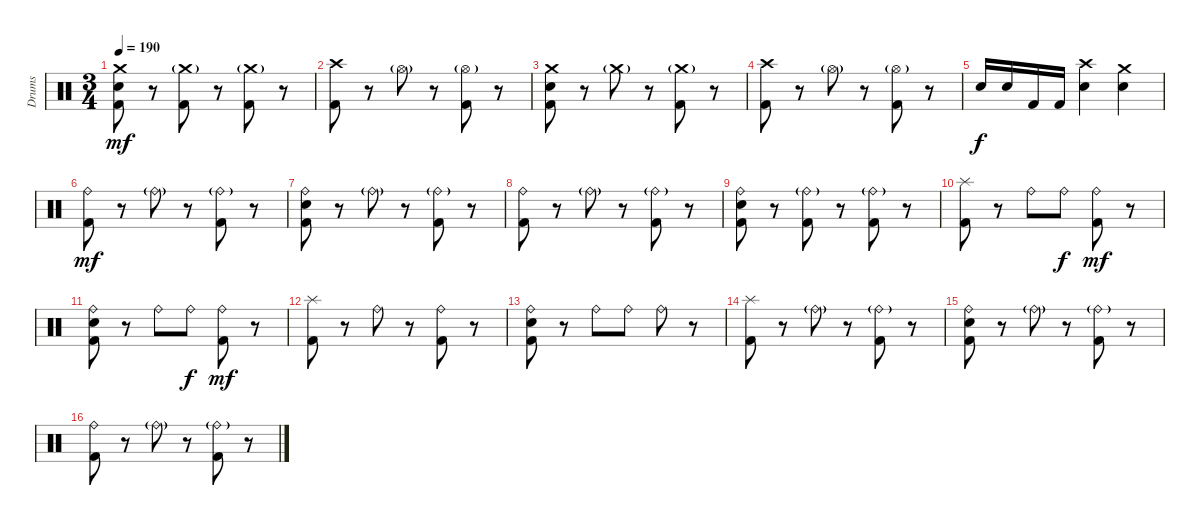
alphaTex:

\track ("Drums" "Drums") {instrument percussion}
\staff {score}
\articulation defaults
\ts (3 4)
\tempo 190
\clef neutral
\ks c
("Crash medium (hit)" "Kick (hit) 2" "Snare (hit) 2").8{dy mf} r.8 ("Crash medium (hit)"{g} "Kick (hit) 2").8 r.8 ("Crash medium (hit)"{g} "Kick (hit) 2").8 r.8 |
("Crash high (hit)" "Kick (hit) 2").8 r.8 "Hi-Hat (open)"{g}.8 r.8 ("Hi-Hat (open)"{g} "Kick (hit) 2").8 r.8 |
("Crash medium (hit)" "Kick (hit) 2" "Snare (hit) 2").8 r.8 "Crash medium (hit)"{g}.8 r.8 ("Crash medium (hit)"{g} "Kick (hit) 2").8 r.8 |
("Crash high (hit)" "Kick (hit) 2").8 r.8 "Hi-Hat (open)"{g}.8 r.8 ("Hi-Hat (open)"{g} "Kick (hit) 2").8 r.8 |
"Snare (hit) 2".16{dy f} "Snare (hit) 2".16 "Kick (hit) 2".16 "Kick (hit) 2".16 ("Snare (hit) 2" "Crash high (hit)").4 ("Snare (hit) 2" "Crash medium (hit)").4 |
("Ride (bell)" "Kick (hit) 2").8{dy mf} r.8 "Ride (bell)"{g}.8 r.8 ("Ride (bell)"{g} "Kick (hit) 2").8 r.8 |
("Ride (bell)" "Kick (hit) 2" "Snare (hit) 2").8 r.8 "Ride (bell)"{g}.8 r.8 ("Ride (bell)"{g} "Kick (hit) 2").8 r.8 |
("Ride (bell)" "Kick (hit) 2").8 r.8 "Ride (bell)"{g}.8 r.8 ("Ride (bell)"{g} "Kick (hit) 2").8 r.8 |
("Ride (bell)" "Kick (hit) 2" "Snare (hit) 2").8 r.8 ("Ride (bell)"{g} "Kick (hit) 2").8 r.8 ("Ride (bell)"{g} "Kick (hit) 2").8 r.8 |
("Splash (hit)" "Kick (hit) 2").8 r.8 "Ride (bell)".8 "Ride (bell)".8{dy f} ("Ride (bell)" "Kick (hit) 2").8{dy mf} r.8 |
("Ride (bell)" "Kick (hit) 2" "Snare (hit) 2").8 r.8 "Ride (bell)".8 "Ride (bell)".8{dy f} ("Ride (bell)" "Kick (hit) 2").8{dy mf} r.8 |
("Splash (hit)" "Kick (hit) 2").8 r.8 "Ride (bell)".8 r.8 ("Ride (bell)" "Kick (hit) 2").8 r.8 |
("Ride (bell)" "Kick (hit) 2" "Snare (hit) 2").8 r.8 "Ride (bell)".8 "Ride (bell)".8 "Ride (bell)".8 r.8 |
("Splash (hit)" "Kick (hit) 2").8 r.8 "Ride (bell)"{g}.8 r.8 ("Ride (bell)"{g} "Kick (hit) 2").8 r.8 |
("Ride (bell)" "Kick (hit) 2" "Snare (hit) 2").8 r.8 "Ride (bell)"{g}.8 r.8 ("Ride (bell)"{g} "Kick (hit) 2").8 r.8 |
("Ride (bell)" "Kick (hit) 2").8 r.8 "Ride (bell)"{g}.8 r.8 ("Ride (bell)"{g} "Kick (hit) 2").8 r.8
